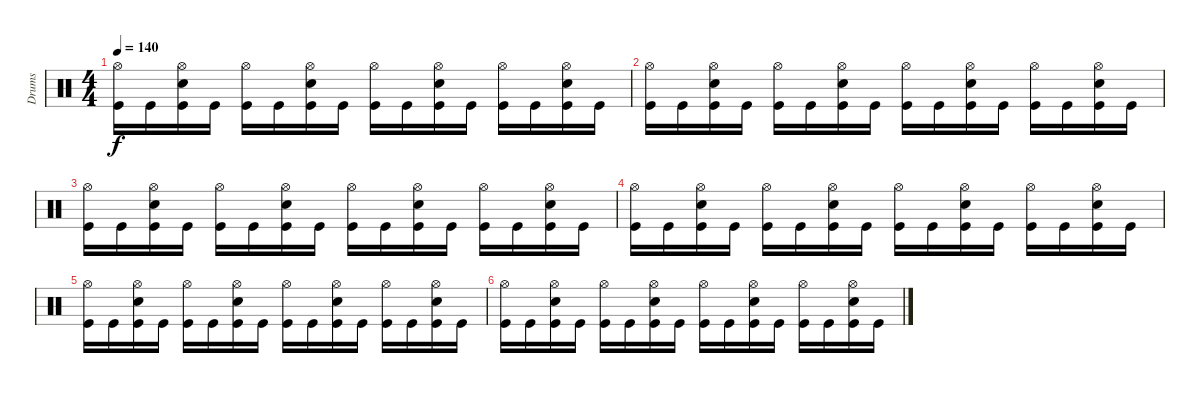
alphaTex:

\track ("Drums" "Drums") {instrument percussion}
\staff {score}
\articulation defaults
\ts (4 4)
\tempo 140
\clef neutral
\ks c
("Hi-Hat (open)" "Kick (hit)").16{dy f} "Kick (hit)".16 ("Hi-Hat (open)" "Snare (hit) 2" "Kick (hit)").16 "Kick (hit)".16 ("Hi-Hat (open)" "Kick (hit)").16 "Kick (hit)".16 ("Hi-Hat (open)" "Snare (hit) 2" "Kick (hit)").16 "Kick (hit)".16 ("Hi-Hat (open)" "Kick (hit)").16 "Kick (hit)".16 ("Hi-Hat (open)" "Snare (hit) 2" "Kick (hit)").16 "Kick (hit)".16 ("Hi-Hat (open)" "Kick (hit)").16 "Kick (hit)".16 ("Hi-Hat (open)" "Snare (hit) 2" "Kick (hit)").16 "Kick (hit)".16 |
("Hi-Hat (open)" "Kick (hit)").16 "Kick (hit)".16 ("Hi-Hat (open)" "Snare (hit) 2" "Kick (hit)").16 "Kick (hit)".16 ("Hi-Hat (open)" "Kick (hit)").16 "Kick (hit)".16 ("Hi-Hat (open)" "Snare (hit) 2" "Kick (hit)").16 "Kick (hit)".16 ("Hi-Hat (open)" "Kick (hit)").16 "Kick (hit)".16 ("Hi-Hat (open)" "Snare (hit) 2" "Kick (hit)").16 "Kick (hit)".16 ("Hi-Hat (open)" "Kick (hit)").16 "Kick (hit)".16 ("Hi-Hat (open)" "Snare (hit) 2" "Kick (hit)").16 "Kick (hit)".16 |
("Hi-Hat (open)" "Kick (hit)").16 "Kick (hit)".16 ("Hi-Hat (open)" "Snare (hit) 2" "Kick (hit)").16 "Kick (hit)".16 ("Hi-Hat (open)" "Kick (hit)").16 "Kick (hit)".16 ("Hi-Hat (open)" "Snare (hit) 2" "Kick (hit)").16 "Kick (hit)".16 ("Hi-Hat (open)" "Kick (hit)").16 "Kick (hit)".16 ("Hi-Hat (open)" "Snare (hit) 2" "Kick (hit)").16 "Kick (hit)".16 ("Hi-Hat (open)" "Kick (hit)").16 "Kick (hit)".16 ("Hi-Hat (open)" "Snare (hit) 2" "Kick (hit)").16 "Kick (hit)".16 |
("Hi-Hat (open)" "Kick (hit)").16 "Kick (hit)".16 ("Hi-Hat (open)" "Snare (hit) 2" "Kick (hit)").16 "Kick (hit)".16 ("Hi-Hat (open)" "Kick (hit)").16 "Kick (hit)".16 ("Hi-Hat (open)" "Snare (hit) 2" "Kick (hit)").16 "Kick (hit)".16 ("Hi-Hat (open)" "Kick (hit)").16 "Kick (hit)".16 ("Hi-Hat (open)" "Snare (hit) 2" "Kick (hit)").16 "Kick (hit)".16 ("Hi-Hat (open)" "Kick (hit)").16 "Kick (hit)".16 ("Hi-Hat (open)" "Snare (hit) 2" "Kick (hit)").16 "Kick (hit)".16 |
("Hi-Hat (open)" "Kick (hit)").16 "Kick (hit)".16 ("Hi-Hat (open)" "Snare (hit) 2" "Kick (hit)").16 "Kick (hit)".16 ("Hi-Hat (open)" "Kick (hit)").16 "Kick (hit)".16 ("Hi-Hat (open)" "Snare (hit) 2" "Kick (hit)").16 "Kick (hit)".16 ("Hi-Hat (open)" "Kick (hit)").16 "Kick (hit)".16 ("Hi-Hat (open)" "Snare (hit) 2" "Kick (hit)").16 "Kick (hit)".16 ("Hi-Hat (open)" "Kick (hit)").16 "Kick (hit)".16 ("Hi-Hat (open)" "Snare (hit) 2" "Kick (hit)").16 "Kick (hit)".16 |
("Hi-Hat (open)" "Kick (hit)").16 "Kick (hit)".16 ("Hi-Hat (open)" "Snare (hit) 2" "Kick (hit)").16 "Kick (hit)".16 ("Hi-Hat (open)" "Kick (hit)").16 "Kick (hit)".16 ("Hi-Hat (open)" "Snare (hit) 2" "Kick (hit)").16 "Kick (hit)".16 ("Hi-Hat (open)" "Kick (hit)").16 "Kick (hit)".16 ("Hi-Hat (open)" "Snare (hit) 2" "Kick (hit)").16 "Kick (hit)".16 ("Hi-Hat (open)" "Kick (hit)").16 "Kick (hit)".16 ("Hi-Hat (open)" "Snare (hit) 2" "Kick (hit)").16 "Kick (hit)".16
